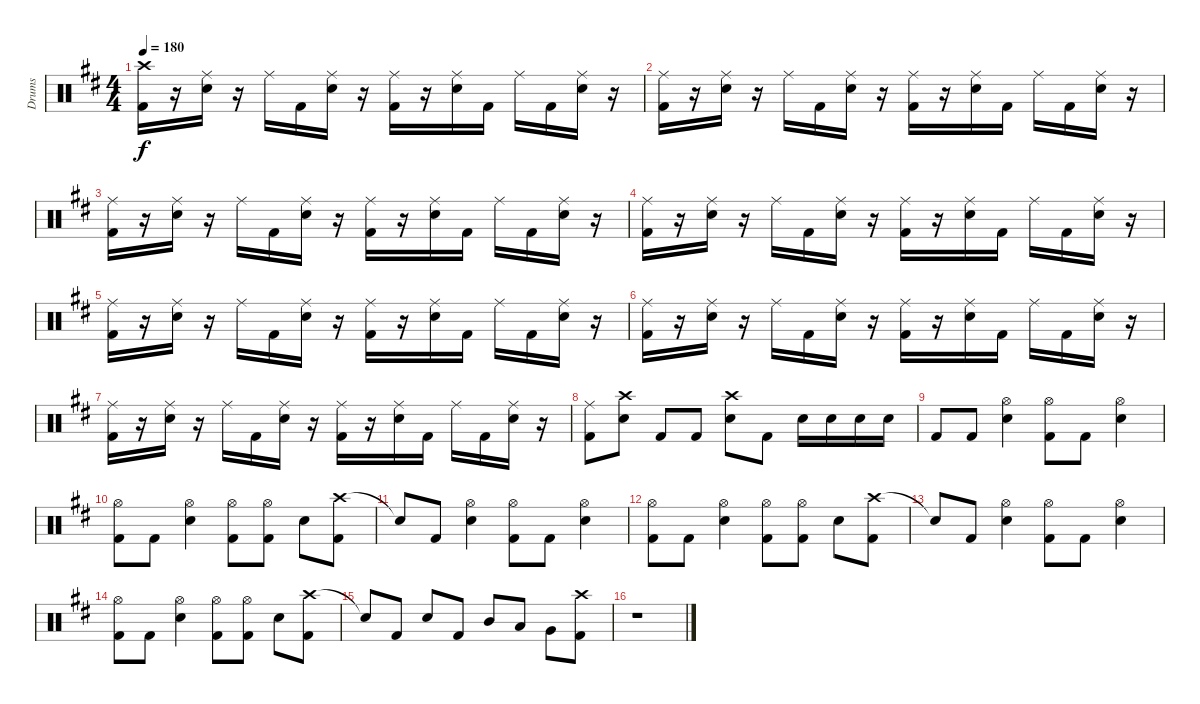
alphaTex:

\track ("Drums" "Drums") {instrument percussion}
\staff {score}
\articulation defaults
\ts (4 4)
\tempo 180
\clef neutral
\ks bminor
("Crash high (hit)" "Kick (hit) 2").16{dy f} r.16 ("Ride (middle)" "Electric Snare (hit)").16 r.16 "Ride (middle)".16 "Kick (hit) 2".16 ("Ride (middle)" "Electric Snare (hit)").16 r.16 ("Ride (middle)" "Kick (hit) 2").16 r.16 ("Ride (middle)" "Electric Snare (hit)").16 "Kick (hit) 2".16 "Ride (middle)".16 "Kick (hit) 2".16 ("Ride (middle)" "Electric Snare (hit)").16 r.16 |
("Ride (middle)" "Kick (hit) 2").16 r.16 ("Ride (middle)" "Electric Snare (hit)").16 r.16 "Ride (middle)".16 "Kick (hit) 2".16 ("Ride (middle)" "Electric Snare (hit)").16 r.16 ("Ride (middle)" "Kick (hit) 2").16 r.16 ("Ride (middle)" "Electric Snare (hit)").16 "Kick (hit) 2".16 "Ride (middle)".16 "Kick (hit) 2".16 ("Ride (middle)" "Electric Snare (hit)").16 r.16 |
("Ride (middle)" "Kick (hit) 2").16 r.16 ("Ride (middle)" "Electric Snare (hit)").16 r.16 "Ride (middle)".16 "Kick (hit) 2".16 ("Ride (middle)" "Electric Snare (hit)").16 r.16 ("Ride (middle)" "Kick (hit) 2").16 r.16 ("Ride (middle)" "Electric Snare (hit)").16 "Kick (hit) 2".16 "Ride (middle)".16 "Kick (hit) 2".16 ("Ride (middle)" "Electric Snare (hit)").16 r.16 |
("Ride (middle)" "Kick (hit) 2").16 r.16 ("Ride (middle)" "Electric Snare (hit)").16 r.16 "Ride (middle)".16 "Kick (hit) 2".16 ("Ride (middle)" "Electric Snare (hit)").16 r.16 ("Ride (middle)" "Kick (hit) 2").16 r.16 ("Ride (middle)" "Electric Snare (hit)").16 "Kick (hit) 2".16 "Ride (middle)".16 "Kick (hit) 2".16 ("Ride (middle)" "Electric Snare (hit)").16 r.16 |
("Ride (middle)" "Kick (hit) 2").16 r.16 ("Ride (middle)" "Electric Snare (hit)").16 r.16 "Ride (middle)".16 "Kick (hit) 2".16 ("Ride (middle)" "Electric Snare (hit)").16 r.16 ("Ride (middle)" "Kick (hit) 2").16 r.16 ("Ride (middle)" "Electric Snare (hit)").16 "Kick (hit) 2".16 "Ride (middle)".16 "Kick (hit) 2".16 ("Ride (middle)" "Electric Snare (hit)").16 r.16 |
("Ride (middle)" "Kick (hit) 2").16 r.16 ("Ride (middle)" "Electric Snare (hit)").16 r.16 "Ride (middle)".16 "Kick (hit) 2".16 ("Ride (middle)" "Electric Snare (hit)").16 r.16 ("Ride (middle)" "Kick (hit) 2").16 r.16 ("Ride (middle)" "Electric Snare (hit)").16 "Kick (hit) 2".16 "Ride (middle)".16 "Kick (hit) 2".16 ("Ride (middle)" "Electric Snare (hit)").16 r.16 |
("Ride (middle)" "Kick (hit) 2").16 r.16 ("Ride (middle)" "Electric Snare (hit)").16 r.16 "Ride (middle)".16 "Kick (hit) 2".16 ("Ride (middle)" "Electric Snare (hit)").16 r.16 ("Ride (middle)" "Kick (hit) 2").16 r.16 ("Ride (middle)" "Electric Snare (hit)").16 "Kick (hit) 2".16 "Ride (middle)".16 "Kick (hit) 2".16 ("Ride (middle)" "Electric Snare (hit)").16 r.16 |
("Ride (middle)" "Kick (hit) 2").8 ("Crash high (hit)" "Electric Snare (hit)").8 "Kick (hit) 2".8 "Kick (hit) 2".8 ("Crash high (hit)" "Electric Snare (hit)").8 "Kick (hit) 2".8 "Electric Snare (hit)".16 "Electric Snare (hit)".16 "Electric Snare (hit)".16 "Electric Snare (hit)".16 |
"Kick (hit) 2".8 "Kick (hit) 2".8 ("Hi-Hat (open)" "Electric Snare (hit)").4 ("Hi-Hat (open)" "Kick (hit) 2").8 "Kick (hit) 2".8 ("Hi-Hat (open)" "Electric Snare (hit)").4 |
("Hi-Hat (open)" "Kick (hit) 2").8 "Kick (hit) 2".8 ("Hi-Hat (open)" "Electric Snare (hit)").4 ("Hi-Hat (open)" "Kick (hit) 2").8 ("Hi-Hat (open)" "Kick (hit) 2").8 "Electric Snare (hit)".8 ("Crash high (hit)" "Kick (hit) 2").8 |
"Snare (hit)"{t}.8 "Kick (hit) 2".8 ("Hi-Hat (open)" "Electric Snare (hit)").4 ("Hi-Hat (open)" "Kick (hit) 2").8 "Kick (hit) 2".8 ("Hi-Hat (open)" "Electric Snare (hit)").4 |
("Hi-Hat (open)" "Kick (hit) 2").8 "Kick (hit) 2".8 ("Hi-Hat (open)" "Electric Snare (hit)").4 ("Hi-Hat (open)" "Kick (hit) 2").8 ("Hi-Hat (open)" "Kick (hit) 2").8 "Electric Snare (hit)".8 ("Crash high (hit)" "Kick (hit) 2").8 |
"Snare (hit)"{t}.8 "Kick (hit) 2".8 ("Hi-Hat (open)" "Electric Snare (hit)").4 ("Hi-Hat (open)" "Kick (hit) 2").8 "Kick (hit) 2".8 ("Hi-Hat (open)" "Electric Snare (hit)").4 |
("Hi-Hat (open)" "Kick (hit) 2").8 "Kick (hit) 2".8 ("Hi-Hat (open)" "Electric Snare (hit)").4 ("Hi-Hat (open)" "Kick (hit) 2").8 ("Hi-Hat (open)" "Kick (hit) 2").8 "Electric Snare (hit)".8 ("Crash high (hit)" "Kick (hit) 2").8 |
"Snare (hit)"{t}.8 "Kick (hit) 2".8 "Electric Snare (hit)".8 "Kick (hit) 2".8 "Mid Tom (hit)".8 "Low Tom (hit)".8 "Very Low Tom (hit)".8 ("Crash high (hit)" "Kick (hit) 2").8 |
r.1
